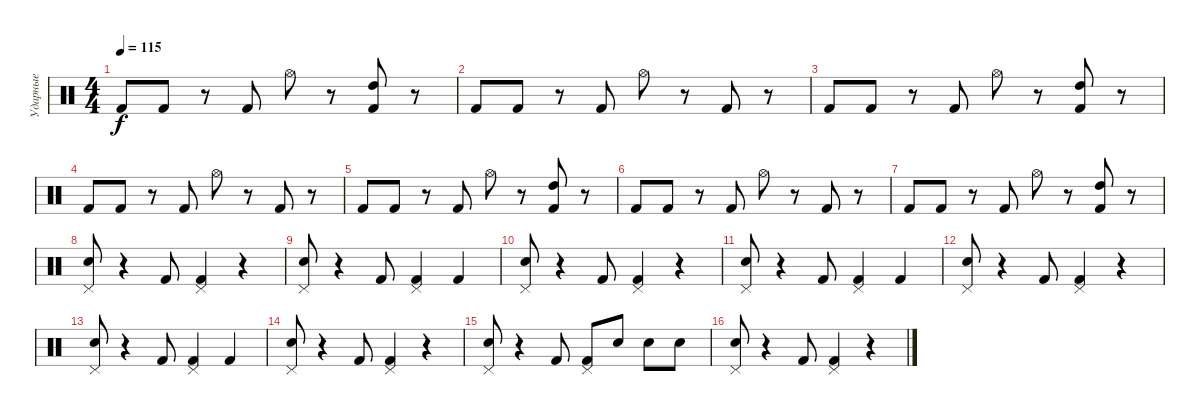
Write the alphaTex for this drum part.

\track ("Ударные" "Ударные") {instrument percussion}
\staff {score}
\articulation defaults
\ts (4 4)
\tempo 115
\clef neutral
\ks c "Kick (hit) 2".8{dy f} "Kick (hit) 2".8
r.8 "Kick (hit) 2".8 "Hi-Hat (open)".8 r.8 ("Kick (hit) 2" "High Tom (hit)").8 r.8 |
"Kick (hit) 2".8 "Kick (hit) 2".8 r.8 "Kick (hit) 2".8 "Hi-Hat (open)".8 r.8 "Kick (hit) 2".8 r.8 |
"Kick (hit) 2".8 "Kick (hit) 2".8 r.8 "Kick (hit) 2".8 "Hi-Hat (open)".8 r.8 ("Kick (hit) 2" "High Tom (hit)").8 r.8 |
"Kick (hit) 2".8 "Kick (hit) 2".8 r.8 "Kick (hit) 2".8 "Hi-Hat (open)".8 r.8 "Kick (hit) 2".8 r.8 |
"Kick (hit) 2".8 "Kick (hit) 2".8 r.8 "Kick (hit) 2".8 "Hi-Hat (open)".8 r.8 ("Kick (hit) 2" "High Tom (hit)").8 r.8 |
"Kick (hit) 2".8 "Kick (hit) 2".8 r.8 "Kick (hit) 2".8 "Hi-Hat (open)".8 r.8 "Kick (hit) 2".8 r.8 |
"Kick (hit) 2".8 "Kick (hit) 2".8 r.8 "Kick (hit) 2".8 "Hi-Hat (open)".8 r.8 ("Kick (hit) 2" "High Tom (hit)").8 r.8 |
("Snare (hit) 2" "Pedal Hi-Hat (hit)").8 r.4 "Kick (hit) 2".8 ("Kick (hit) 2" "Pedal Hi-Hat (hit)").4 r.4 |
("Snare (hit) 2" "Pedal Hi-Hat (hit)").8 r.4 "Kick (hit) 2".8 ("Kick (hit) 2" "Pedal Hi-Hat (hit)").4 "Kick (hit) 2".4 |
("Snare (hit) 2" "Pedal Hi-Hat (hit)").8 r.4 "Kick (hit) 2".8 ("Kick (hit) 2" "Pedal Hi-Hat (hit)").4 r.4 |
("Snare (hit) 2" "Pedal Hi-Hat (hit)").8 r.4 "Kick (hit) 2".8 ("Kick (hit) 2" "Pedal Hi-Hat (hit)").4 "Kick (hit) 2".4 |
("Snare (hit) 2" "Pedal Hi-Hat (hit)").8 r.4 "Kick (hit) 2".8 ("Kick (hit) 2" "Pedal Hi-Hat (hit)").4 r.4 |
("Snare (hit) 2" "Pedal Hi-Hat (hit)").8 r.4 "Kick (hit) 2".8 ("Kick (hit) 2" "Pedal Hi-Hat (hit)").4 "Kick (hit) 2".4 |
("Snare (hit) 2" "Pedal Hi-Hat (hit)").8 r.4 "Kick (hit) 2".8 ("Kick (hit) 2" "Pedal Hi-Hat (hit)").4 r.4 |
("Snare (hit) 2" "Pedal Hi-Hat (hit)").8 r.4 "Kick (hit) 2".8 ("Kick (hit) 2" "Pedal Hi-Hat (hit)").8 "Snare (hit) 2".8 "Snare (hit) 2".8 "Snare (hit) 2".8 |
("Snare (hit) 2" "Pedal Hi-Hat (hit)").8 r.4 "Kick (hit) 2".8 ("Kick (hit) 2" "Pedal Hi-Hat (hit)").4 r.4
